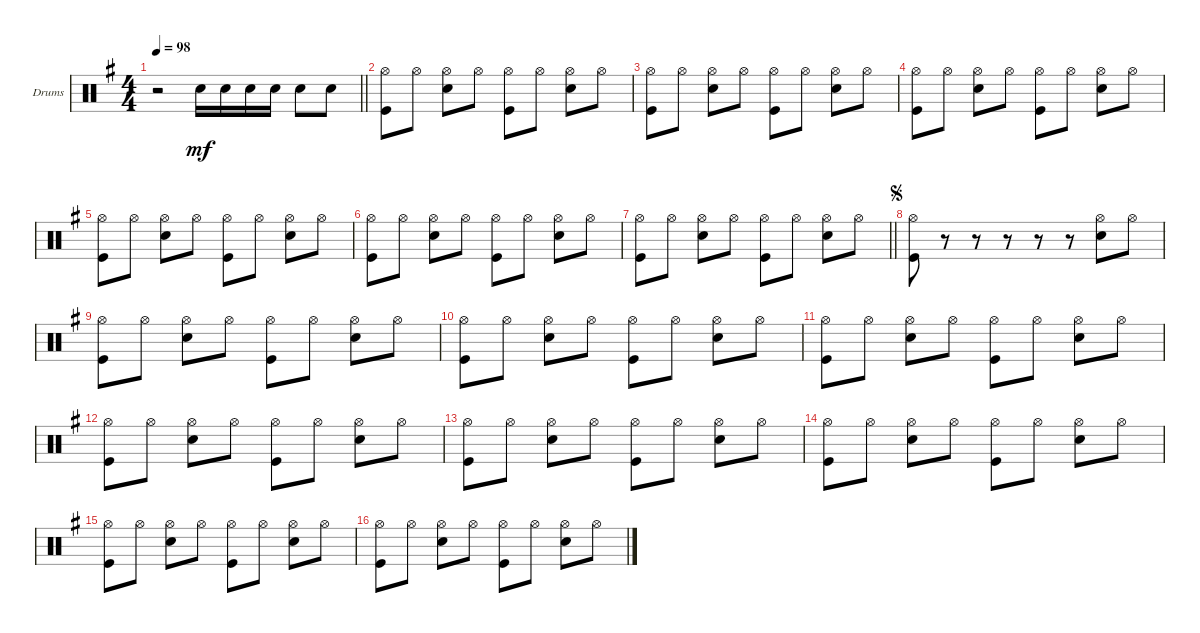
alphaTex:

\bracketExtendMode groupsimilarinstruments
\multiBarRest
\firstSystemTrackNameOrientation horizontal
\otherSystemsTrackNameOrientation horizontal
\track ("Drumkit" "Drums") {instrument percussion}
\staff {score}
\articulation defaults
\ts (4 4)
\tempo 98
\clef neutral
\barLineRight lightlight
\ks g
r.2{dy mf} "Snare (hit) 2".16 "Snare (hit) 2".16 "Snare (hit) 2".16 "Snare (hit) 2".16 "Snare (hit) 2".8 "Snare (hit) 2".8 |
("Kick (hit)" "Hi-Hat (open)").8 "Hi-Hat (open)".8 ("Hi-Hat (open)" "Snare (hit) 2").8 "Hi-Hat (open)".8 ("Kick (hit)" "Hi-Hat (open)").8 "Hi-Hat (open)".8 ("Hi-Hat (open)" "Snare (hit) 2").8 "Hi-Hat (open)".8 |
("Kick (hit)" "Hi-Hat (open)").8 "Hi-Hat (open)".8 ("Hi-Hat (open)" "Snare (hit) 2").8 "Hi-Hat (open)".8 ("Kick (hit)" "Hi-Hat (open)").8 "Hi-Hat (open)".8 ("Hi-Hat (open)" "Snare (hit) 2").8 "Hi-Hat (open)".8 |
("Kick (hit)" "Hi-Hat (open)").8 "Hi-Hat (open)".8 ("Hi-Hat (open)" "Snare (hit) 2").8 "Hi-Hat (open)".8 ("Kick (hit)" "Hi-Hat (open)").8 "Hi-Hat (open)".8 ("Hi-Hat (open)" "Snare (hit) 2").8 "Hi-Hat (open)".8 |
("Kick (hit)" "Hi-Hat (open)").8 "Hi-Hat (open)".8 ("Hi-Hat (open)" "Snare (hit) 2").8 "Hi-Hat (open)".8 ("Kick (hit)" "Hi-Hat (open)").8 "Hi-Hat (open)".8 ("Hi-Hat (open)" "Snare (hit) 2").8 "Hi-Hat (open)".8 |
("Kick (hit)" "Hi-Hat (open)").8 "Hi-Hat (open)".8 ("Hi-Hat (open)" "Snare (hit) 2").8 "Hi-Hat (open)".8 ("Kick (hit)" "Hi-Hat (open)").8 "Hi-Hat (open)".8 ("Hi-Hat (open)" "Snare (hit) 2").8 "Hi-Hat (open)".8 |
\barLineRight lightlight
("Kick (hit)" "Hi-Hat (open)").8 "Hi-Hat (open)".8 ("Hi-Hat (open)" "Snare (hit) 2").8 "Hi-Hat (open)".8 ("Kick (hit)" "Hi-Hat (open)").8 "Hi-Hat (open)".8 ("Hi-Hat (open)" "Snare (hit) 2").8 "Hi-Hat (open)".8 |
\jump segno
("Kick (hit)" "Hi-Hat (open)").8 r.8 r.8 r.8 r.8 r.8 ("Hi-Hat (open)" "Snare (hit) 2").8 "Hi-Hat (open)".8 |
("Kick (hit)" "Hi-Hat (open)").8 "Hi-Hat (open)".8 ("Hi-Hat (open)" "Snare (hit) 2").8 "Hi-Hat (open)".8 ("Kick (hit)" "Hi-Hat (open)").8 "Hi-Hat (open)".8 ("Hi-Hat (open)" "Snare (hit) 2").8 "Hi-Hat (open)".8 |
("Kick (hit)" "Hi-Hat (open)").8 "Hi-Hat (open)".8 ("Hi-Hat (open)" "Snare (hit) 2").8 "Hi-Hat (open)".8 ("Kick (hit)" "Hi-Hat (open)").8 "Hi-Hat (open)".8 ("Hi-Hat (open)" "Snare (hit) 2").8 "Hi-Hat (open)".8 |
("Kick (hit)" "Hi-Hat (open)").8 "Hi-Hat (open)".8 ("Hi-Hat (open)" "Snare (hit) 2").8 "Hi-Hat (open)".8 ("Kick (hit)" "Hi-Hat (open)").8 "Hi-Hat (open)".8 ("Hi-Hat (open)" "Snare (hit) 2").8 "Hi-Hat (open)".8 |
("Kick (hit)" "Hi-Hat (open)").8 "Hi-Hat (open)".8 ("Hi-Hat (open)" "Snare (hit) 2").8 "Hi-Hat (open)".8 ("Kick (hit)" "Hi-Hat (open)").8 "Hi-Hat (open)".8 ("Hi-Hat (open)" "Snare (hit) 2").8 "Hi-Hat (open)".8 |
("Kick (hit)" "Hi-Hat (open)").8 "Hi-Hat (open)".8 ("Hi-Hat (open)" "Snare (hit) 2").8 "Hi-Hat (open)".8 ("Kick (hit)" "Hi-Hat (open)").8 "Hi-Hat (open)".8 ("Hi-Hat (open)" "Snare (hit) 2").8 "Hi-Hat (open)".8 |
("Kick (hit)" "Hi-Hat (open)").8 "Hi-Hat (open)".8 ("Hi-Hat (open)" "Snare (hit) 2").8 "Hi-Hat (open)".8 ("Kick (hit)" "Hi-Hat (open)").8 "Hi-Hat (open)".8 ("Hi-Hat (open)" "Snare (hit) 2").8 "Hi-Hat (open)".8 |
("Kick (hit)" "Hi-Hat (open)").8 "Hi-Hat (open)".8 ("Hi-Hat (open)" "Snare (hit) 2").8 "Hi-Hat (open)".8 ("Kick (hit)" "Hi-Hat (open)").8 "Hi-Hat (open)".8 ("Hi-Hat (open)" "Snare (hit) 2").8 "Hi-Hat (open)".8 |
\scale
0.235955 ("Kick (hit)" "Hi-Hat (open)").8 "Hi-Hat (open)".8 ("Hi-Hat (open)" "Snare (hit) 2").8 "Hi-Hat (open)".8 ("Kick (hit)" "Hi-Hat (open)").8 "Hi-Hat (open)".8 ("Hi-Hat (open)" "Snare (hit) 2").8 "Hi-Hat (open)".8
